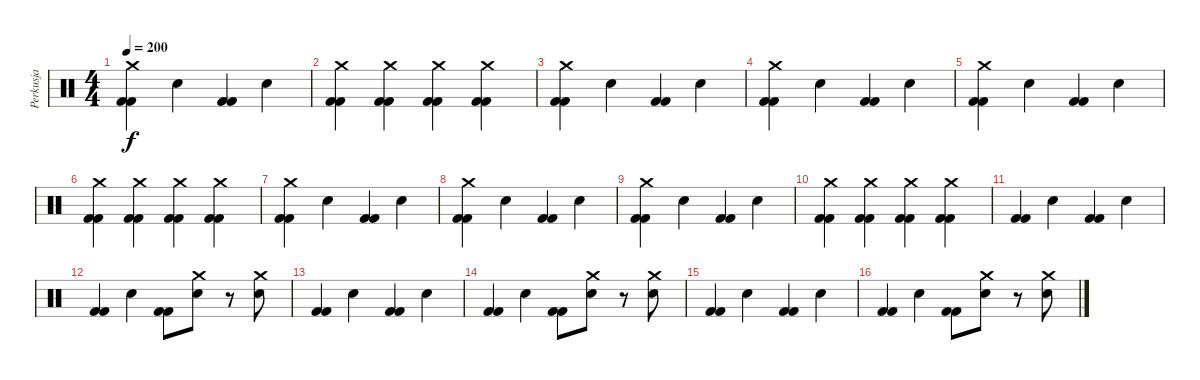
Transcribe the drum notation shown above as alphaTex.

\track ("Perkusja" "Perkusja") {instrument percussion}
\staff {score}
\articulation defaults
\ts (4 4)
\tempo 200
\clef neutral
\ks c
("Crash medium (hit)" "Kick (hit) 2" "Kick (hit) 2").4{dy f} "Snare (hit) 2".4 ("Kick (hit) 2" "Kick (hit) 2").4 "Snare (hit) 2".4 |
("Crash medium (hit)" "Kick (hit) 2" "Kick (hit) 2").4 ("Crash medium (hit)" "Kick (hit) 2" "Kick (hit) 2").4 ("Crash medium (hit)" "Kick (hit) 2" "Kick (hit) 2").4 ("Crash medium (hit)" "Kick (hit) 2" "Kick (hit) 2").4 |
("Crash medium (hit)" "Kick (hit) 2" "Kick (hit) 2").4 "Snare (hit) 2".4 ("Kick (hit) 2" "Kick (hit) 2").4 "Snare (hit) 2".4 |
("Crash medium (hit)" "Kick (hit) 2" "Kick (hit) 2").4 "Snare (hit) 2".4 ("Kick (hit) 2" "Kick (hit) 2").4 "Snare (hit) 2".4 |
("Crash medium (hit)" "Kick (hit) 2" "Kick (hit) 2").4 "Snare (hit) 2".4 ("Kick (hit) 2" "Kick (hit) 2").4 "Snare (hit) 2".4 |
("Crash medium (hit)" "Kick (hit) 2" "Kick (hit) 2").4 ("Crash medium (hit)" "Kick (hit) 2" "Kick (hit) 2").4 ("Crash medium (hit)" "Kick (hit) 2" "Kick (hit) 2").4 ("Crash medium (hit)" "Kick (hit) 2" "Kick (hit) 2").4 |
("Crash medium (hit)" "Kick (hit) 2" "Kick (hit) 2").4 "Snare (hit) 2".4 ("Kick (hit) 2" "Kick (hit) 2").4 "Snare (hit) 2".4 |
("Crash medium (hit)" "Kick (hit) 2" "Kick (hit) 2").4 "Snare (hit) 2".4 ("Kick (hit) 2" "Kick (hit) 2").4 "Snare (hit) 2".4 |
("Crash medium (hit)" "Kick (hit) 2" "Kick (hit) 2").4 "Snare (hit) 2".4 ("Kick (hit) 2" "Kick (hit) 2").4 "Snare (hit) 2".4 |
("Crash medium (hit)" "Kick (hit) 2" "Kick (hit) 2").4 ("Crash medium (hit)" "Kick (hit) 2" "Kick (hit) 2").4 ("Crash medium (hit)" "Kick (hit) 2" "Kick (hit) 2").4 ("Crash medium (hit)" "Kick (hit) 2" "Kick (hit) 2").4 |
("Kick (hit) 2" "Kick (hit) 2").4 "Snare (hit) 2".4 ("Kick (hit) 2" "Kick (hit) 2").4 "Snare (hit) 2".4 |
("Kick (hit) 2" "Kick (hit) 2").4 "Snare (hit) 2".4 ("Kick (hit) 2" "Kick (hit) 2").8 ("Crash medium (hit)" "Snare (hit) 2").8 r.8 ("Crash medium (hit)" "Snare (hit) 2").8 |
("Kick (hit) 2" "Kick (hit) 2").4 "Snare (hit) 2".4 ("Kick (hit) 2" "Kick (hit) 2").4 "Snare (hit) 2".4 |
("Kick (hit) 2" "Kick (hit) 2").4 "Snare (hit) 2".4 ("Kick (hit) 2" "Kick (hit) 2").8 ("Crash medium (hit)" "Snare (hit) 2").8 r.8 ("Crash medium (hit)" "Snare (hit) 2").8 |
("Kick (hit) 2" "Kick (hit) 2").4 "Snare (hit) 2".4 ("Kick (hit) 2" "Kick (hit) 2").4 "Snare (hit) 2".4 |
("Kick (hit) 2" "Kick (hit) 2").4 "Snare (hit) 2".4 ("Kick (hit) 2" "Kick (hit) 2").8 ("Crash medium (hit)" "Snare (hit) 2").8 r.8 ("Crash medium (hit)" "Snare (hit) 2").8
